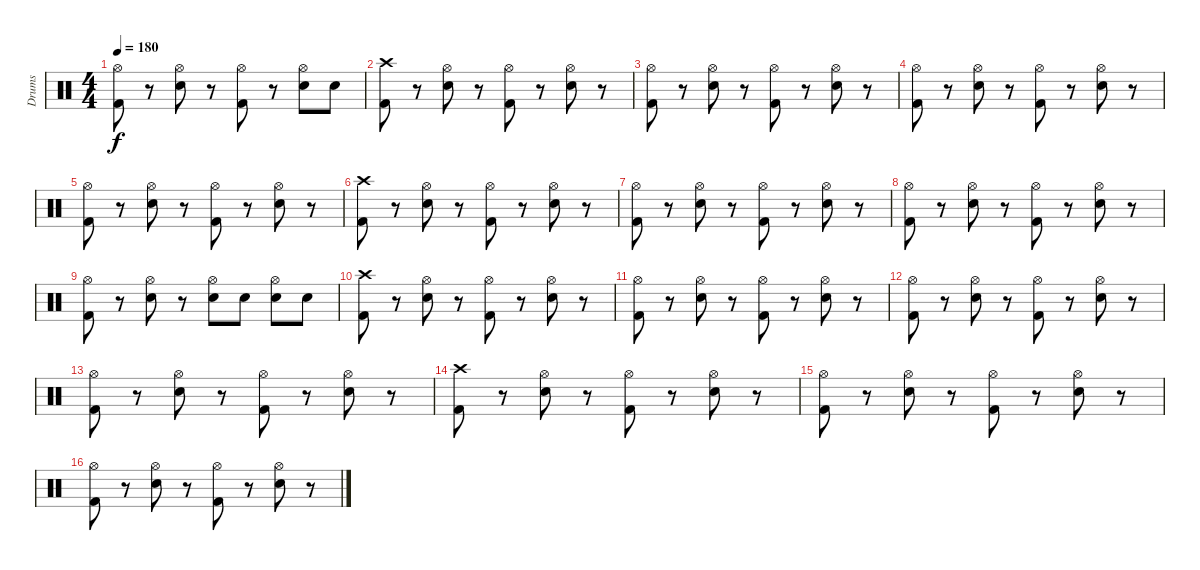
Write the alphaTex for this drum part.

\track ("Drums" "Drums") {instrument percussion}
\staff {score}
\articulation defaults
\ts (4 4)
\tempo 180
\clef neutral
\ks c
("Hi-Hat (open)" "Kick (hit) 2").8{dy f} r.8 ("Hi-Hat (open)" "Snare (hit) 2").8 r.8 ("Hi-Hat (open)" "Kick (hit) 2").8 r.8 ("Hi-Hat (open)" "Snare (hit) 2").8 "Snare (hit) 2".8 |
("Crash high (hit)" "Kick (hit) 2").8 r.8 ("Hi-Hat (open)" "Snare (hit) 2").8 r.8 ("Hi-Hat (open)" "Kick (hit) 2").8 r.8 ("Hi-Hat (open)" "Snare (hit) 2").8 r.8 |
("Hi-Hat (open)" "Kick (hit) 2").8 r.8 ("Hi-Hat (open)" "Snare (hit) 2").8 r.8 ("Hi-Hat (open)" "Kick (hit) 2").8 r.8 ("Hi-Hat (open)" "Snare (hit) 2").8 r.8 |
("Hi-Hat (open)" "Kick (hit) 2").8 r.8 ("Hi-Hat (open)" "Snare (hit) 2").8 r.8 ("Hi-Hat (open)" "Kick (hit) 2").8 r.8 ("Hi-Hat (open)" "Snare (hit) 2").8 r.8 |
("Hi-Hat (open)" "Kick (hit) 2").8 r.8 ("Hi-Hat (open)" "Snare (hit) 2").8 r.8 ("Hi-Hat (open)" "Kick (hit) 2").8 r.8 ("Hi-Hat (open)" "Snare (hit) 2").8 r.8 |
("Crash high (hit)" "Kick (hit) 2").8 r.8 ("Hi-Hat (open)" "Snare (hit) 2").8 r.8 ("Hi-Hat (open)" "Kick (hit) 2").8 r.8 ("Hi-Hat (open)" "Snare (hit) 2").8 r.8 |
("Hi-Hat (open)" "Kick (hit) 2").8 r.8 ("Hi-Hat (open)" "Snare (hit) 2").8 r.8 ("Hi-Hat (open)" "Kick (hit) 2").8 r.8 ("Hi-Hat (open)" "Snare (hit) 2").8 r.8 |
("Hi-Hat (open)" "Kick (hit) 2").8 r.8 ("Hi-Hat (open)" "Snare (hit) 2").8 r.8 ("Hi-Hat (open)" "Kick (hit) 2").8 r.8 ("Hi-Hat (open)" "Snare (hit) 2").8 r.8 |
("Hi-Hat (open)" "Kick (hit) 2").8 r.8 ("Hi-Hat (open)" "Snare (hit) 2").8 r.8 ("Hi-Hat (open)" "Snare (hit) 2").8 "Snare (hit) 2".8 ("Hi-Hat (open)" "Snare (hit) 2").8 "Snare (hit) 2".8 |
("Crash high (hit)" "Kick (hit) 2").8 r.8 ("Hi-Hat (open)" "Snare (hit) 2").8 r.8 ("Hi-Hat (open)" "Kick (hit) 2").8 r.8 ("Hi-Hat (open)" "Snare (hit) 2").8 r.8 |
("Hi-Hat (open)" "Kick (hit) 2").8 r.8 ("Hi-Hat (open)" "Snare (hit) 2").8 r.8 ("Hi-Hat (open)" "Kick (hit) 2").8 r.8 ("Hi-Hat (open)" "Snare (hit) 2").8 r.8 |
("Hi-Hat (open)" "Kick (hit) 2").8 r.8 ("Hi-Hat (open)" "Snare (hit) 2").8 r.8 ("Hi-Hat (open)" "Kick (hit) 2").8 r.8 ("Hi-Hat (open)" "Snare (hit) 2").8 r.8 |
("Hi-Hat (open)" "Kick (hit) 2").8 r.8 ("Hi-Hat (open)" "Snare (hit) 2").8 r.8 ("Hi-Hat (open)" "Kick (hit) 2").8 r.8 ("Hi-Hat (open)" "Snare (hit) 2").8 r.8 |
("Crash high (hit)" "Kick (hit) 2").8 r.8 ("Hi-Hat (open)" "Snare (hit) 2").8 r.8 ("Hi-Hat (open)" "Kick (hit) 2").8 r.8 ("Hi-Hat (open)" "Snare (hit) 2").8 r.8 |
("Hi-Hat (open)" "Kick (hit) 2").8 r.8 ("Hi-Hat (open)" "Snare (hit) 2").8 r.8 ("Hi-Hat (open)" "Kick (hit) 2").8 r.8 ("Hi-Hat (open)" "Snare (hit) 2").8 r.8 |
("Hi-Hat (open)" "Kick (hit) 2").8 r.8 ("Hi-Hat (open)" "Snare (hit) 2").8 r.8 ("Hi-Hat (open)" "Kick (hit) 2").8 r.8 ("Hi-Hat (open)" "Snare (hit) 2").8 r.8
